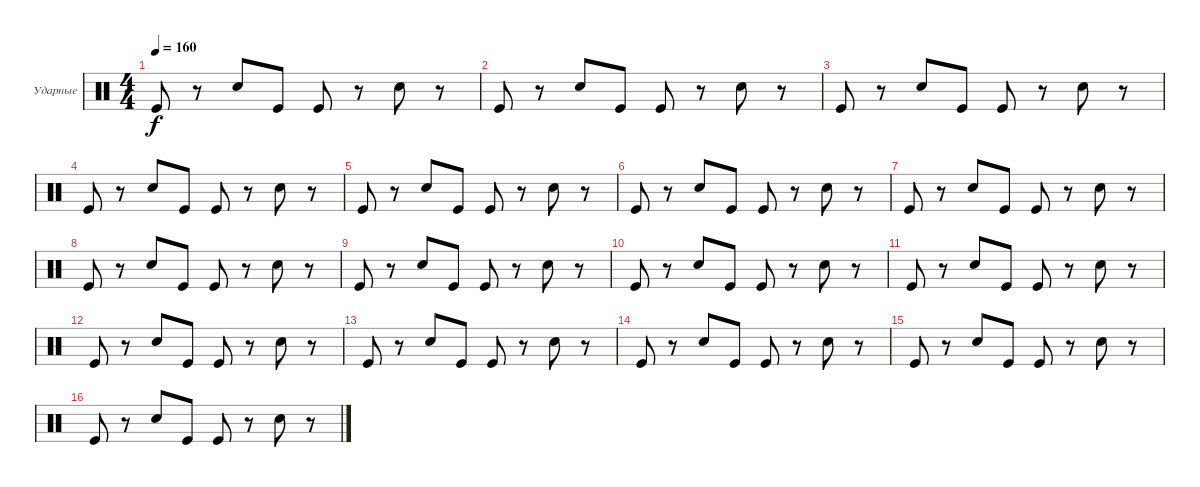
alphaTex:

\bracketExtendMode groupsimilarinstruments
\firstSystemTrackNameOrientation horizontal
\otherSystemsTrackNameOrientation horizontal
\track ("Александр Львов" "Ударные") {instrument percussion}
\staff {score}
\articulation defaults
\ts (4 4)
\tempo 160
\clef neutral
\ks c "Kick (hit)".8{dy f}
r.8 "Snare (hit) 2".8 "Kick (hit)".8 "Kick (hit)".8 r.8 "Snare (hit) 2".8 r.8 |
"Kick (hit)".8 r.8 "Snare (hit) 2".8 "Kick (hit)".8 "Kick (hit)".8 r.8 "Snare (hit) 2".8 r.8 |
"Kick (hit)".8 r.8 "Snare (hit) 2".8 "Kick (hit)".8 "Kick (hit)".8 r.8 "Snare (hit) 2".8 r.8 |
"Kick (hit)".8 r.8 "Snare (hit) 2".8 "Kick (hit)".8 "Kick (hit)".8 r.8 "Snare (hit) 2".8 r.8 |
"Kick (hit)".8 r.8 "Snare (hit) 2".8 "Kick (hit)".8 "Kick (hit)".8 r.8 "Snare (hit) 2".8 r.8 |
"Kick (hit)".8 r.8 "Snare (hit) 2".8 "Kick (hit)".8 "Kick (hit)".8 r.8 "Snare (hit) 2".8 r.8 |
"Kick (hit)".8 r.8 "Snare (hit) 2".8 "Kick (hit)".8 "Kick (hit)".8 r.8 "Snare (hit) 2".8 r.8 |
"Kick (hit)".8 r.8 "Snare (hit) 2".8 "Kick (hit)".8 "Kick (hit)".8 r.8 "Snare (hit) 2".8 r.8 |
"Kick (hit)".8 r.8 "Snare (hit) 2".8 "Kick (hit)".8 "Kick (hit)".8 r.8 "Snare (hit) 2".8 r.8 |
"Kick (hit)".8 r.8 "Snare (hit) 2".8 "Kick (hit)".8 "Kick (hit)".8 r.8 "Snare (hit) 2".8 r.8 |
"Kick (hit)".8 r.8 "Snare (hit) 2".8 "Kick (hit)".8 "Kick (hit)".8 r.8 "Snare (hit) 2".8 r.8 |
"Kick (hit)".8 r.8 "Snare (hit) 2".8 "Kick (hit)".8 "Kick (hit)".8 r.8 "Snare (hit) 2".8 r.8 |
"Kick (hit)".8 r.8 "Snare (hit) 2".8 "Kick (hit)".8 "Kick (hit)".8 r.8 "Snare (hit) 2".8 r.8 |
"Kick (hit)".8 r.8 "Snare (hit) 2".8 "Kick (hit)".8 "Kick (hit)".8 r.8 "Snare (hit) 2".8 r.8 |
"Kick (hit)".8 r.8 "Snare (hit) 2".8 "Kick (hit)".8 "Kick (hit)".8 r.8 "Snare (hit) 2".8 r.8 |
"Kick (hit)".8 r.8 "Snare (hit) 2".8 "Kick (hit)".8 "Kick (hit)".8 r.8 "Snare (hit) 2".8 r.8
